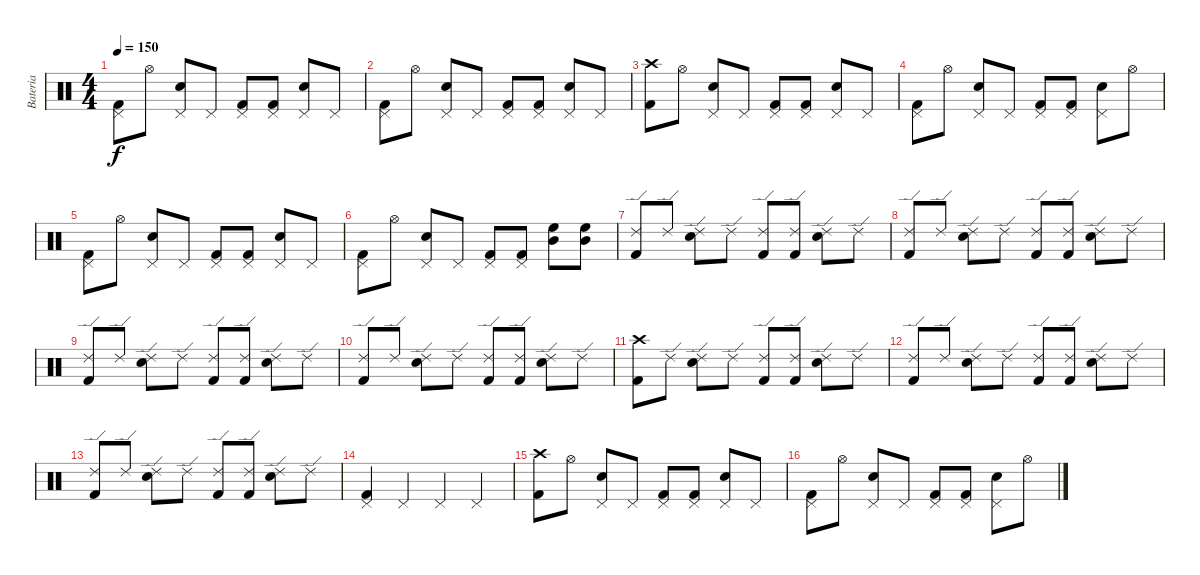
\track ("Bateria" "Bateria") {instrument percussion}
\staff {score}
\articulation defaults
\ts (4 4)
\tempo 150
\clef neutral
\ks c
("Pedal Hi-Hat (hit)" "Kick (hit) 2").8{dy f} "Hi-Hat (open)".8 ("Pedal Hi-Hat (hit)" "Snare (hit) 2").8 "Pedal Hi-Hat (hit)".8 ("Pedal Hi-Hat (hit)" "Kick (hit) 2").8 ("Pedal Hi-Hat (hit)" "Kick (hit) 2").8 ("Pedal Hi-Hat (hit)" "Snare (hit) 2").8 "Pedal Hi-Hat (hit)".8 |
("Pedal Hi-Hat (hit)" "Kick (hit) 2").8 "Hi-Hat (open)".8 ("Pedal Hi-Hat (hit)" "Snare (hit) 2").8 "Pedal Hi-Hat (hit)".8 ("Pedal Hi-Hat (hit)" "Kick (hit) 2").8 ("Pedal Hi-Hat (hit)" "Kick (hit) 2").8 ("Pedal Hi-Hat (hit)" "Snare (hit) 2").8 "Pedal Hi-Hat (hit)".8 |
("Crash high (hit)" "Kick (hit) 2").8 "Hi-Hat (open)".8 ("Pedal Hi-Hat (hit)" "Snare (hit) 2").8 "Pedal Hi-Hat (hit)".8 ("Pedal Hi-Hat (hit)" "Kick (hit) 2").8 ("Pedal Hi-Hat (hit)" "Kick (hit) 2").8 ("Pedal Hi-Hat (hit)" "Snare (hit) 2").8 "Pedal Hi-Hat (hit)".8 |
("Pedal Hi-Hat (hit)" "Kick (hit) 2").8 "Hi-Hat (open)".8 ("Pedal Hi-Hat (hit)" "Snare (hit) 2").8 "Pedal Hi-Hat (hit)".8 ("Pedal Hi-Hat (hit)" "Kick (hit) 2").8 ("Pedal Hi-Hat (hit)" "Kick (hit) 2").8 ("Pedal Hi-Hat (hit)" "Snare (hit) 2").8 "Hi-Hat (open)".8 |
("Pedal Hi-Hat (hit)" "Kick (hit) 2").8 "Hi-Hat (open)".8 ("Pedal Hi-Hat (hit)" "Snare (hit) 2").8 "Pedal Hi-Hat (hit)".8 ("Pedal Hi-Hat (hit)" "Kick (hit) 2").8 ("Pedal Hi-Hat (hit)" "Kick (hit) 2").8 ("Pedal Hi-Hat (hit)" "Snare (hit) 2").8 "Pedal Hi-Hat (hit)".8 |
("Pedal Hi-Hat (hit)" "Kick (hit) 2").8 "Hi-Hat (open)".8 ("Pedal Hi-Hat (hit)" "Snare (hit) 2").8 "Pedal Hi-Hat (hit)".8 ("Pedal Hi-Hat (hit)" "Kick (hit) 2").8 ("Pedal Hi-Hat (hit)" "Kick (hit) 2").8 ("Mid Tom (hit)" "High Floor Tom (hit)").8 ("Mid Tom (hit)" "High Floor Tom (hit)").8 |
("Ride (edge) 2" "Kick (hit) 2").8 "Ride (edge) 2".8 ("Ride (edge) 2" "Snare (hit) 2").8 "Ride (edge) 2".8 ("Ride (edge) 2" "Kick (hit) 2").8 ("Ride (edge) 2" "Kick (hit) 2").8 ("Ride (edge) 2" "Snare (hit) 2").8 "Ride (edge) 2".8 |
("Ride (edge) 2" "Kick (hit) 2").8 "Ride (edge) 2".8 ("Ride (edge) 2" "Snare (hit) 2").8 "Ride (edge) 2".8 ("Ride (edge) 2" "Kick (hit) 2").8 ("Ride (edge) 2" "Kick (hit) 2").8 ("Ride (edge) 2" "Snare (hit) 2").8 "Ride (edge) 2".8 |
("Ride (edge) 2" "Kick (hit) 2").8 "Ride (edge) 2".8 ("Ride (edge) 2" "Snare (hit) 2").8 "Ride (edge) 2".8 ("Ride (edge) 2" "Kick (hit) 2").8 ("Ride (edge) 2" "Kick (hit) 2").8 ("Ride (edge) 2" "Snare (hit) 2").8 "Ride (edge) 2".8 |
("Ride (edge) 2" "Kick (hit) 2").8 "Ride (edge) 2".8 ("Ride (edge) 2" "Snare (hit) 2").8 "Ride (edge) 2".8 ("Ride (edge) 2" "Kick (hit) 2").8 ("Ride (edge) 2" "Kick (hit) 2").8 ("Ride (edge) 2" "Snare (hit) 2").8 "Ride (edge) 2".8 |
("Crash high (hit)" "Kick (hit) 2").8 "Ride (edge) 2".8 ("Ride (edge) 2" "Snare (hit) 2").8 "Ride (edge) 2".8 ("Ride (edge) 2" "Kick (hit) 2").8 ("Ride (edge) 2" "Kick (hit) 2").8 ("Ride (edge) 2" "Snare (hit) 2").8 "Ride (edge) 2".8 |
("Ride (edge) 2" "Kick (hit) 2").8 "Ride (edge) 2".8 ("Ride (edge) 2" "Snare (hit) 2").8 "Ride (edge) 2".8 ("Ride (edge) 2" "Kick (hit) 2").8 ("Ride (edge) 2" "Kick (hit) 2").8 ("Ride (edge) 2" "Snare (hit) 2").8 "Ride (edge) 2".8 |
("Ride (edge) 2" "Kick (hit) 2").8 "Ride (edge) 2".8 ("Ride (edge) 2" "Snare (hit) 2").8 "Ride (edge) 2".8 ("Ride (edge) 2" "Kick (hit) 2").8 ("Ride (edge) 2" "Kick (hit) 2").8 ("Ride (edge) 2" "Snare (hit) 2").8 "Ride (edge) 2".8 |
("Pedal Hi-Hat (hit)" "Kick (hit) 2").4 "Pedal Hi-Hat (hit)".4 "Pedal Hi-Hat (hit)".4 "Pedal Hi-Hat (hit)".4 |
("Crash high (hit)" "Kick (hit) 2").8 "Hi-Hat (open)".8 ("Pedal Hi-Hat (hit)" "Snare (hit) 2").8 "Pedal Hi-Hat (hit)".8 ("Pedal Hi-Hat (hit)" "Kick (hit) 2").8 ("Pedal Hi-Hat (hit)" "Kick (hit) 2").8 ("Pedal Hi-Hat (hit)" "Snare (hit) 2").8 "Pedal Hi-Hat (hit)".8 |
("Pedal Hi-Hat (hit)" "Kick (hit) 2").8 "Hi-Hat (open)".8 ("Pedal Hi-Hat (hit)" "Snare (hit) 2").8 "Pedal Hi-Hat (hit)".8 ("Pedal Hi-Hat (hit)" "Kick (hit) 2").8 ("Pedal Hi-Hat (hit)" "Kick (hit) 2").8 ("Pedal Hi-Hat (hit)" "Snare (hit) 2").8 "Hi-Hat (open)".8
